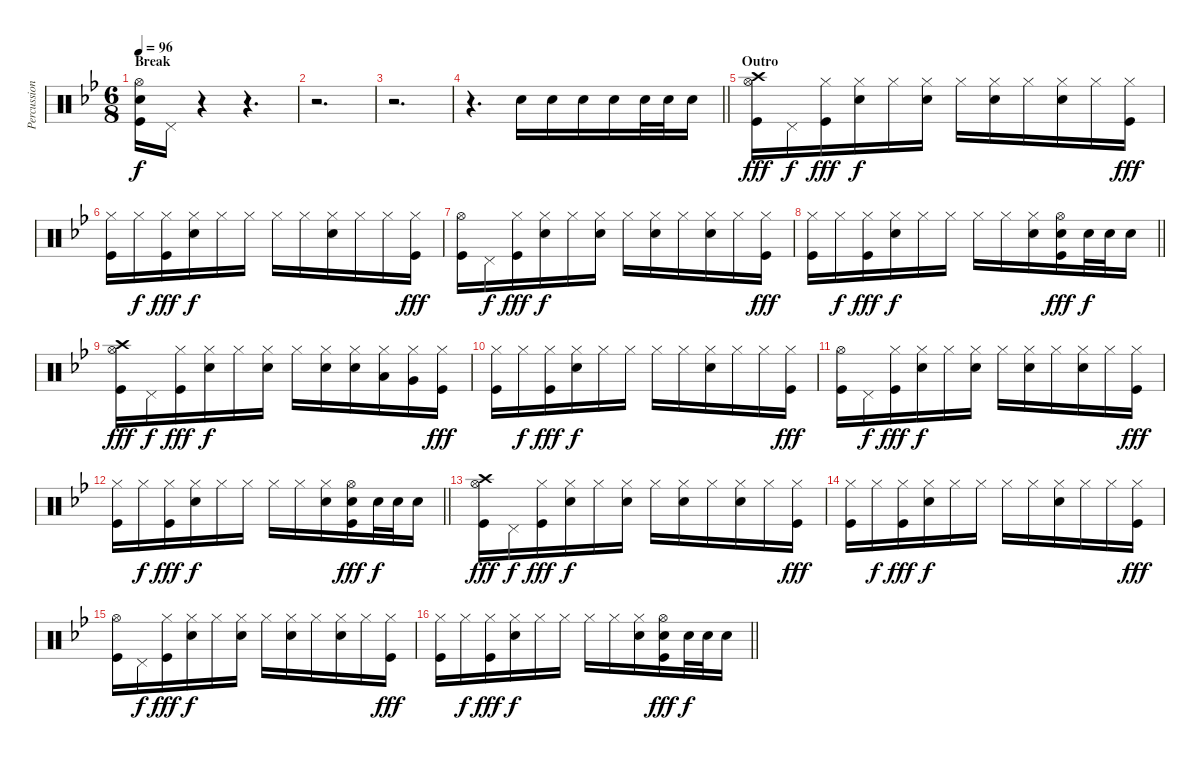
\track ("Percussion" "Percussion") {instrument percussion}
\staff {score}
\articulation defaults
\ts (6 8)
\section ("" "Break")
\tempo 96
\clef neutral
\ks gminor
("Hi-Hat (open)" "Electric Snare (hit)" "Kick (hit)").16{dy f} "Pedal Hi-Hat (hit)".16 r.4 r.4{d} |
r.2{d} |
r.2{d} |
\barLineRight lightlight
r.4{d} "Electric Snare (hit)".16 "Electric Snare (hit)".16 "Electric Snare (hit)".16 "Electric Snare (hit)".16 "Electric Snare (hit)".32 "Electric Snare (hit)".32 "Electric Snare (hit)".16 |
\section ("" "Outro")
("Crash high (hit)" "Hi-Hat (open)" "Kick (hit)").16{dy fff volume 8} "Pedal Hi-Hat (hit)".16{dy f} ("Hi-Hat (closed)" "Kick (hit)").16{dy fff} ("Hi-Hat (closed)" "Snare (hit) 2").16{dy f} "Hi-Hat (closed)".16 ("Hi-Hat (closed)" "Snare (hit) 2").16 "Hi-Hat (closed)".16 ("Hi-Hat (closed)" "Snare (hit) 2").16 "Hi-Hat (closed)".16 ("Hi-Hat (closed)" "Snare (hit) 2").16 "Hi-Hat (closed)".16 ("Hi-Hat (closed)" "Kick (hit)").16{dy fff} |
("Hi-Hat (closed)" "Kick (hit)").16 "Hi-Hat (closed)".16{dy f} ("Hi-Hat (closed)" "Kick (hit)").16{dy fff} ("Hi-Hat (closed)" "Snare (hit) 2").16{dy f} "Hi-Hat (closed)".16 "Hi-Hat (closed)".16 "Hi-Hat (closed)".16 "Hi-Hat (closed)".16 ("Hi-Hat (closed)" "Snare (hit) 2").16 "Hi-Hat (closed)".16 "Hi-Hat (closed)".16 ("Hi-Hat (closed)" "Kick (hit)").16{dy fff} |
("Hi-Hat (open)" "Kick (hit)").16 "Pedal Hi-Hat (hit)".16{dy f} ("Hi-Hat (closed)" "Kick (hit)").16{dy fff} ("Hi-Hat (closed)" "Snare (hit) 2").16{dy f} "Hi-Hat (closed)".16 ("Hi-Hat (closed)" "Snare (hit) 2").16 "Hi-Hat (closed)".16 ("Hi-Hat (closed)" "Snare (hit) 2").16 "Hi-Hat (closed)".16 ("Hi-Hat (closed)" "Snare (hit) 2").16 "Hi-Hat (closed)".16 ("Hi-Hat (closed)" "Kick (hit)").16{dy fff} |
\barLineRight lightlight
("Hi-Hat (closed)" "Kick (hit)").16 "Hi-Hat (closed)".16{dy f} ("Hi-Hat (closed)" "Kick (hit)").16{dy fff} ("Hi-Hat (closed)" "Snare (hit) 2").16{dy f} "Hi-Hat (closed)".16 "Hi-Hat (closed)".16 "Hi-Hat (closed)".16 "Hi-Hat (closed)".16 ("Hi-Hat (closed)" "Snare (hit) 2").16 ("Hi-Hat (open)" "Snare (hit) 2" "Kick (hit)").16{dy fff} "Snare (hit) 2".32{dy f} "Snare (hit) 2".32 "Snare (hit) 2".16 |
("Crash high (hit)" "Hi-Hat (open)" "Kick (hit)").16{dy fff} "Pedal Hi-Hat (hit)".16{dy f} ("Hi-Hat (closed)" "Kick (hit)").16{dy fff} ("Hi-Hat (closed)" "Snare (hit) 2").16{dy f} "Hi-Hat (closed)".16 ("Hi-Hat (closed)" "Snare (hit) 2").16 "Hi-Hat (closed)".16 ("Hi-Hat (closed)" "Snare (hit) 2").16 ("Hi-Hat (closed)" "Snare (hit) 2").16 ("Hi-Hat (closed)" "Low Tom (hit)").16 ("Hi-Hat (closed)" "Very Low Tom (hit)").16 ("Hi-Hat (closed)" "Kick (hit)").16{dy fff} |
("Hi-Hat (closed)" "Kick (hit)").16 "Hi-Hat (closed)".16{dy f} ("Hi-Hat (closed)" "Kick (hit)").16{dy fff} ("Hi-Hat (closed)" "Snare (hit) 2").16{dy f} "Hi-Hat (closed)".16 "Hi-Hat (closed)".16 "Hi-Hat (closed)".16 "Hi-Hat (closed)".16 ("Hi-Hat (closed)" "Snare (hit) 2").16 "Hi-Hat (closed)".16 "Hi-Hat (closed)".16 ("Hi-Hat (closed)" "Kick (hit)").16{dy fff} |
("Hi-Hat (open)" "Kick (hit)").16 "Pedal Hi-Hat (hit)".16{dy f} ("Hi-Hat (closed)" "Kick (hit)").16{dy fff} ("Hi-Hat (closed)" "Snare (hit) 2").16{dy f} "Hi-Hat (closed)".16 ("Hi-Hat (closed)" "Snare (hit) 2").16 "Hi-Hat (closed)".16 ("Hi-Hat (closed)" "Snare (hit) 2").16 "Hi-Hat (closed)".16 ("Hi-Hat (closed)" "Snare (hit) 2").16 "Hi-Hat (closed)".16 ("Hi-Hat (closed)" "Kick (hit)").16{dy fff} |
\barLineRight lightlight
("Hi-Hat (closed)" "Kick (hit)").16 "Hi-Hat (closed)".16{dy f} ("Hi-Hat (closed)" "Kick (hit)").16{dy fff} ("Hi-Hat (closed)" "Snare (hit) 2").16{dy f} "Hi-Hat (closed)".16 "Hi-Hat (closed)".16 "Hi-Hat (closed)".16 "Hi-Hat (closed)".16 ("Hi-Hat (closed)" "Snare (hit) 2").16 ("Hi-Hat (open)" "Snare (hit) 2" "Kick (hit)").16{dy fff} "Snare (hit) 2".32{dy f} "Snare (hit) 2".32 "Snare (hit) 2".16 |
("Crash high (hit)" "Hi-Hat (open)" "Kick (hit)").16{dy fff volume 0} "Pedal Hi-Hat (hit)".16{dy f} ("Hi-Hat (closed)" "Kick (hit)").16{dy fff} ("Hi-Hat (closed)" "Snare (hit) 2").16{dy f} "Hi-Hat (closed)".16 ("Hi-Hat (closed)" "Snare (hit) 2").16 "Hi-Hat (closed)".16 ("Hi-Hat (closed)" "Snare (hit) 2").16 "Hi-Hat (closed)".16 ("Hi-Hat (closed)" "Snare (hit) 2").16 "Hi-Hat (closed)".16 ("Hi-Hat (closed)" "Kick (hit)").16{dy fff} |
("Hi-Hat (closed)" "Kick (hit)").16 "Hi-Hat (closed)".16{dy f} ("Hi-Hat (closed)" "Kick (hit)").16{dy fff} ("Hi-Hat (closed)" "Snare (hit) 2").16{dy f} "Hi-Hat (closed)".16 "Hi-Hat (closed)".16 "Hi-Hat (closed)".16 "Hi-Hat (closed)".16 ("Hi-Hat (closed)" "Snare (hit) 2").16 "Hi-Hat (closed)".16 "Hi-Hat (closed)".16 ("Hi-Hat (closed)" "Kick (hit)").16{dy fff} |
("Hi-Hat (open)" "Kick (hit)").16 "Pedal Hi-Hat (hit)".16{dy f} ("Hi-Hat (closed)" "Kick (hit)").16{dy fff} ("Hi-Hat (closed)" "Snare (hit) 2").16{dy f} "Hi-Hat (closed)".16 ("Hi-Hat (closed)" "Snare (hit) 2").16 "Hi-Hat (closed)".16 ("Hi-Hat (closed)" "Snare (hit) 2").16 "Hi-Hat (closed)".16 ("Hi-Hat (closed)" "Snare (hit) 2").16 "Hi-Hat (closed)".16 ("Hi-Hat (closed)" "Kick (hit)").16{dy fff} |
\barLineRight lightlight
("Hi-Hat (closed)" "Kick (hit)").16 "Hi-Hat (closed)".16{dy f} ("Hi-Hat (closed)" "Kick (hit)").16{dy fff} ("Hi-Hat (closed)" "Snare (hit) 2").16{dy f} "Hi-Hat (closed)".16 "Hi-Hat (closed)".16 "Hi-Hat (closed)".16 "Hi-Hat (closed)".16 ("Hi-Hat (closed)" "Snare (hit) 2").16 ("Hi-Hat (open)" "Snare (hit) 2" "Kick (hit)").16{dy fff} "Snare (hit) 2".32{dy f} "Snare (hit) 2".32 "Snare (hit) 2".16
